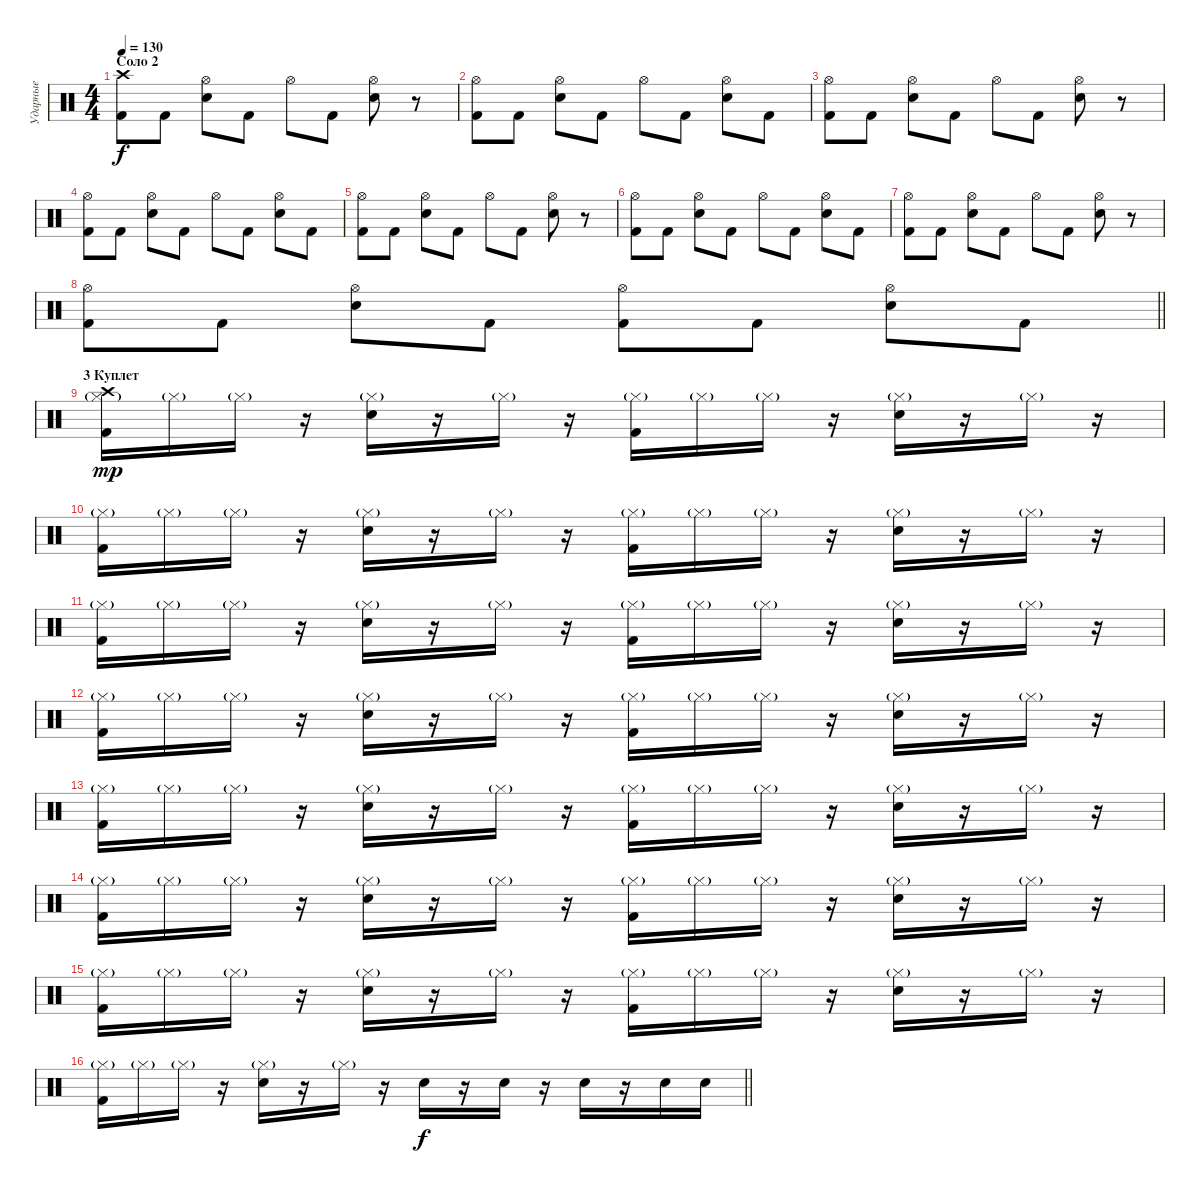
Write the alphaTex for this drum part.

\track ("Ударные" "Ударные") {instrument percussion}
\staff {score}
\articulation defaults
\ts (4 4)
\section ("" "Соло 2")
\tempo 130
\clef neutral
\ks c
("Crash high (hit)" "Kick (hit) 2").8{dy f} "Kick (hit) 2".8 ("Hi-Hat (open)" "Snare (hit) 2").8 "Kick (hit) 2".8 "Hi-Hat (open)".8 "Kick (hit) 2".8 ("Hi-Hat (open)" "Snare (hit) 2").8 r.8 |
("Hi-Hat (open)" "Kick (hit) 2").8 "Kick (hit) 2".8 ("Hi-Hat (open)" "Snare (hit) 2").8 "Kick (hit) 2".8 "Hi-Hat (open)".8 "Kick (hit) 2".8 ("Hi-Hat (open)" "Snare (hit) 2").8 "Kick (hit) 2".8 |
("Hi-Hat (open)" "Kick (hit) 2").8 "Kick (hit) 2".8 ("Hi-Hat (open)" "Snare (hit) 2").8 "Kick (hit) 2".8 "Hi-Hat (open)".8 "Kick (hit) 2".8 ("Hi-Hat (open)" "Snare (hit) 2").8 r.8 |
("Hi-Hat (open)" "Kick (hit) 2").8 "Kick (hit) 2".8 ("Hi-Hat (open)" "Snare (hit) 2").8 "Kick (hit) 2".8 "Hi-Hat (open)".8 "Kick (hit) 2".8 ("Hi-Hat (open)" "Snare (hit) 2").8 "Kick (hit) 2".8 |
("Hi-Hat (open)" "Kick (hit) 2").8 "Kick (hit) 2".8 ("Hi-Hat (open)" "Snare (hit) 2").8 "Kick (hit) 2".8 "Hi-Hat (open)".8 "Kick (hit) 2".8 ("Hi-Hat (open)" "Snare (hit) 2").8 r.8 |
("Hi-Hat (open)" "Kick (hit) 2").8 "Kick (hit) 2".8 ("Hi-Hat (open)" "Snare (hit) 2").8 "Kick (hit) 2".8 "Hi-Hat (open)".8 "Kick (hit) 2".8 ("Hi-Hat (open)" "Snare (hit) 2").8 "Kick (hit) 2".8 |
("Hi-Hat (open)" "Kick (hit) 2").8 "Kick (hit) 2".8 ("Hi-Hat (open)" "Snare (hit) 2").8 "Kick (hit) 2".8 "Hi-Hat (open)".8 "Kick (hit) 2".8 ("Hi-Hat (open)" "Snare (hit) 2").8 r.8 |
\barLineRight lightlight
("Hi-Hat (open)" "Kick (hit) 2").8 "Kick (hit) 2".8 ("Hi-Hat (open)" "Snare (hit) 2").8 "Kick (hit) 2".8 ("Hi-Hat (open)" "Kick (hit) 2").8 "Kick (hit) 2".8 ("Hi-Hat (open)" "Snare (hit) 2").8 "Kick (hit) 2".8 |
\section ("" "3 Куплет")
("Crash high (hit)" "Hi-Hat (closed)"{g} "Kick (hit) 2").16{dy mp} "Hi-Hat (closed)"{g}.16 "Hi-Hat (closed)"{g}.16 r.16 ("Hi-Hat (closed)"{g} "Snare (hit) 2").16 r.16 "Hi-Hat (closed)"{g}.16 r.16 ("Hi-Hat (closed)"{g} "Kick (hit) 2").16 "Hi-Hat (closed)"{g}.16 "Hi-Hat (closed)"{g}.16 r.16 ("Hi-Hat (closed)"{g} "Snare (hit) 2").16 r.16 "Hi-Hat (closed)"{g}.16 r.16 |
("Hi-Hat (closed)"{g} "Kick (hit) 2").16 "Hi-Hat (closed)"{g}.16 "Hi-Hat (closed)"{g}.16 r.16 ("Hi-Hat (closed)"{g} "Snare (hit) 2").16 r.16 "Hi-Hat (closed)"{g}.16 r.16 ("Hi-Hat (closed)"{g} "Kick (hit) 2").16 "Hi-Hat (closed)"{g}.16 "Hi-Hat (closed)"{g}.16 r.16 ("Hi-Hat (closed)"{g} "Snare (hit) 2").16 r.16 "Hi-Hat (closed)"{g}.16 r.16 |
("Hi-Hat (closed)"{g} "Kick (hit) 2").16 "Hi-Hat (closed)"{g}.16 "Hi-Hat (closed)"{g}.16 r.16 ("Hi-Hat (closed)"{g} "Snare (hit) 2").16 r.16 "Hi-Hat (closed)"{g}.16 r.16 ("Hi-Hat (closed)"{g} "Kick (hit) 2").16 "Hi-Hat (closed)"{g}.16 "Hi-Hat (closed)"{g}.16 r.16 ("Hi-Hat (closed)"{g} "Snare (hit) 2").16 r.16 "Hi-Hat (closed)"{g}.16 r.16 |
("Hi-Hat (closed)"{g} "Kick (hit) 2").16 "Hi-Hat (closed)"{g}.16 "Hi-Hat (closed)"{g}.16 r.16 ("Hi-Hat (closed)"{g} "Snare (hit) 2").16 r.16 "Hi-Hat (closed)"{g}.16 r.16 ("Hi-Hat (closed)"{g} "Kick (hit) 2").16 "Hi-Hat (closed)"{g}.16 "Hi-Hat (closed)"{g}.16 r.16 ("Hi-Hat (closed)"{g} "Snare (hit) 2").16 r.16 "Hi-Hat (closed)"{g}.16 r.16 |
("Hi-Hat (closed)"{g} "Kick (hit) 2").16 "Hi-Hat (closed)"{g}.16 "Hi-Hat (closed)"{g}.16 r.16 ("Hi-Hat (closed)"{g} "Snare (hit) 2").16 r.16 "Hi-Hat (closed)"{g}.16 r.16 ("Hi-Hat (closed)"{g} "Kick (hit) 2").16 "Hi-Hat (closed)"{g}.16 "Hi-Hat (closed)"{g}.16 r.16 ("Hi-Hat (closed)"{g} "Snare (hit) 2").16 r.16 "Hi-Hat (closed)"{g}.16 r.16 |
("Hi-Hat (closed)"{g} "Kick (hit) 2").16 "Hi-Hat (closed)"{g}.16 "Hi-Hat (closed)"{g}.16 r.16 ("Hi-Hat (closed)"{g} "Snare (hit) 2").16 r.16 "Hi-Hat (closed)"{g}.16 r.16 ("Hi-Hat (closed)"{g} "Kick (hit) 2").16 "Hi-Hat (closed)"{g}.16 "Hi-Hat (closed)"{g}.16 r.16 ("Hi-Hat (closed)"{g} "Snare (hit) 2").16 r.16 "Hi-Hat (closed)"{g}.16 r.16 |
("Hi-Hat (closed)"{g} "Kick (hit) 2").16 "Hi-Hat (closed)"{g}.16 "Hi-Hat (closed)"{g}.16 r.16 ("Hi-Hat (closed)"{g} "Snare (hit) 2").16 r.16 "Hi-Hat (closed)"{g}.16 r.16 ("Hi-Hat (closed)"{g} "Kick (hit) 2").16 "Hi-Hat (closed)"{g}.16 "Hi-Hat (closed)"{g}.16 r.16 ("Hi-Hat (closed)"{g} "Snare (hit) 2").16 r.16 "Hi-Hat (closed)"{g}.16 r.16 |
\barLineRight lightlight
("Hi-Hat (closed)"{g} "Kick (hit) 2").16 "Hi-Hat (closed)"{g}.16 "Hi-Hat (closed)"{g}.16 r.16 ("Hi-Hat (closed)"{g} "Snare (hit) 2").16 r.16 "Hi-Hat (closed)"{g}.16 r.16 "Snare (hit) 2".16{dy f} r.16 "Snare (hit) 2".16 r.16 "Snare (hit) 2".16 r.16 "Snare (hit) 2".16 "Snare (hit) 2".16
